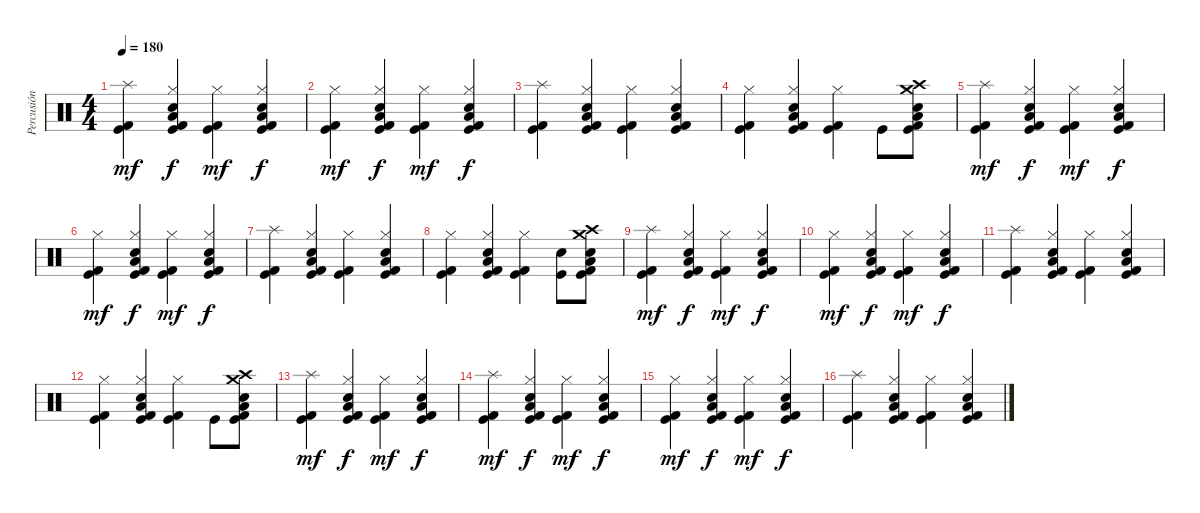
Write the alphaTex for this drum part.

\track ("Percusión" "Percusión") {instrument percussion}
\staff {score}
\articulation defaults
\ts (4 4)
\tempo 180
\clef neutral
\ks c
("Splash (hit)" "Kick (hit) 2" "Kick (hit)").4{dy mf} ("Hi-Hat (closed)" "Electric Snare (hit)" "Low Tom (hit)" "Kick (hit) 2" "Kick (hit)").4{dy f} ("Hi-Hat (closed)" "Kick (hit) 2" "Kick (hit)").4{dy mf} ("Hi-Hat (closed)" "Electric Snare (hit)" "Low Tom (hit)" "Kick (hit) 2" "Kick (hit)").4{dy f} |
("Hi-Hat (closed)" "Kick (hit) 2" "Kick (hit)").4{dy mf} ("Hi-Hat (closed)" "Electric Snare (hit)" "Low Tom (hit)" "Kick (hit) 2" "Kick (hit)").4{dy f} ("Hi-Hat (closed)" "Kick (hit) 2" "Kick (hit)").4{dy mf} ("Hi-Hat (closed)" "Electric Snare (hit)" "Low Tom (hit)" "Kick (hit) 2" "Kick (hit)").4{dy f} |
("Splash (hit)" "Kick (hit) 2" "Kick (hit)").4 ("Hi-Hat (closed)" "Electric Snare (hit)" "Low Tom (hit)" "Kick (hit) 2" "Kick (hit)").4 ("Hi-Hat (closed)" "Kick (hit) 2" "Kick (hit)").4 ("Hi-Hat (closed)" "Electric Snare (hit)" "Low Tom (hit)" "Kick (hit) 2" "Kick (hit)").4 |
("Hi-Hat (closed)" "Kick (hit) 2" "Kick (hit)").4 ("Hi-Hat (closed)" "Electric Snare (hit)" "Low Tom (hit)" "Kick (hit) 2" "Kick (hit)").4 ("Hi-Hat (closed)" "Kick (hit) 2" "Kick (hit)").4 "Kick (hit)".8 ("Crash high (hit)" "Electric Snare (hit)" "Low Tom (hit)" "Crash medium (hit)" "Kick (hit) 2" "Kick (hit)").8 |
("Splash (hit)" "Kick (hit) 2" "Kick (hit)").4{dy mf} ("Hi-Hat (closed)" "Electric Snare (hit)" "Low Tom (hit)" "Kick (hit) 2" "Kick (hit)").4{dy f} ("Hi-Hat (closed)" "Kick (hit) 2" "Kick (hit)").4{dy mf} ("Hi-Hat (closed)" "Electric Snare (hit)" "Low Tom (hit)" "Kick (hit) 2" "Kick (hit)").4{dy f} |
("Hi-Hat (closed)" "Kick (hit) 2" "Kick (hit)").4{dy mf} ("Hi-Hat (closed)" "Electric Snare (hit)" "Low Tom (hit)" "Kick (hit) 2" "Kick (hit)").4{dy f} ("Hi-Hat (closed)" "Kick (hit) 2" "Kick (hit)").4{dy mf} ("Hi-Hat (closed)" "Electric Snare (hit)" "Low Tom (hit)" "Kick (hit) 2" "Kick (hit)").4{dy f} |
("Splash (hit)" "Kick (hit) 2" "Kick (hit)").4 ("Hi-Hat (closed)" "Electric Snare (hit)" "Low Tom (hit)" "Kick (hit) 2" "Kick (hit)").4 ("Hi-Hat (closed)" "Kick (hit) 2" "Kick (hit)").4 ("Hi-Hat (closed)" "Electric Snare (hit)" "Low Tom (hit)" "Kick (hit) 2" "Kick (hit)").4 |
("Hi-Hat (closed)" "Kick (hit) 2" "Kick (hit)").4 ("Hi-Hat (closed)" "Electric Snare (hit)" "Low Tom (hit)" "Kick (hit) 2" "Kick (hit)").4 ("Hi-Hat (closed)" "Kick (hit) 2" "Kick (hit)").4 ("Electric Snare (hit)" "Kick (hit)").8 ("Crash high (hit)" "Electric Snare (hit)" "Low Tom (hit)" "Crash medium (hit)" "Kick (hit) 2" "Kick (hit)").8 |
("Splash (hit)" "Kick (hit) 2" "Kick (hit)").4{dy mf} ("Hi-Hat (closed)" "Electric Snare (hit)" "Low Tom (hit)" "Kick (hit) 2" "Kick (hit)").4{dy f} ("Hi-Hat (closed)" "Kick (hit) 2" "Kick (hit)").4{dy mf} ("Hi-Hat (closed)" "Electric Snare (hit)" "Low Tom (hit)" "Kick (hit) 2" "Kick (hit)").4{dy f} |
("Hi-Hat (closed)" "Kick (hit) 2" "Kick (hit)").4{dy mf} ("Hi-Hat (closed)" "Electric Snare (hit)" "Low Tom (hit)" "Kick (hit) 2" "Kick (hit)").4{dy f} ("Hi-Hat (closed)" "Kick (hit) 2" "Kick (hit)").4{dy mf} ("Hi-Hat (closed)" "Electric Snare (hit)" "Low Tom (hit)" "Kick (hit) 2" "Kick (hit)").4{dy f} |
("Splash (hit)" "Kick (hit) 2" "Kick (hit)").4 ("Hi-Hat (closed)" "Electric Snare (hit)" "Low Tom (hit)" "Kick (hit) 2" "Kick (hit)").4 ("Hi-Hat (closed)" "Kick (hit) 2" "Kick (hit)").4 ("Hi-Hat (closed)" "Electric Snare (hit)" "Low Tom (hit)" "Kick (hit) 2" "Kick (hit)").4 |
("Hi-Hat (closed)" "Kick (hit) 2" "Kick (hit)").4 ("Hi-Hat (closed)" "Electric Snare (hit)" "Low Tom (hit)" "Kick (hit) 2" "Kick (hit)").4 ("Hi-Hat (closed)" "Kick (hit) 2" "Kick (hit)").4 "Kick (hit)".8 ("Crash high (hit)" "Electric Snare (hit)" "Low Tom (hit)" "Crash medium (hit)" "Kick (hit) 2" "Kick (hit)").8 |
("Splash (hit)" "Kick (hit) 2" "Kick (hit)").4{dy mf} ("Hi-Hat (closed)" "Electric Snare (hit)" "Low Tom (hit)" "Kick (hit) 2" "Kick (hit)").4{dy f} ("Hi-Hat (closed)" "Kick (hit) 2" "Kick (hit)").4{dy mf} ("Hi-Hat (closed)" "Electric Snare (hit)" "Low Tom (hit)" "Kick (hit) 2" "Kick (hit)").4{dy f} |
("Splash (hit)" "Kick (hit) 2" "Kick (hit)").4{dy mf} ("Hi-Hat (closed)" "Electric Snare (hit)" "Low Tom (hit)" "Kick (hit) 2" "Kick (hit)").4{dy f} ("Hi-Hat (closed)" "Kick (hit) 2" "Kick (hit)").4{dy mf} ("Hi-Hat (closed)" "Electric Snare (hit)" "Low Tom (hit)" "Kick (hit) 2" "Kick (hit)").4{dy f} |
("Hi-Hat (closed)" "Kick (hit) 2" "Kick (hit)").4{dy mf} ("Hi-Hat (closed)" "Electric Snare (hit)" "Low Tom (hit)" "Kick (hit) 2" "Kick (hit)").4{dy f} ("Hi-Hat (closed)" "Kick (hit) 2" "Kick (hit)").4{dy mf} ("Hi-Hat (closed)" "Electric Snare (hit)" "Low Tom (hit)" "Kick (hit) 2" "Kick (hit)").4{dy f} |
("Splash (hit)" "Kick (hit) 2" "Kick (hit)").4 ("Hi-Hat (closed)" "Electric Snare (hit)" "Low Tom (hit)" "Kick (hit) 2" "Kick (hit)").4 ("Hi-Hat (closed)" "Kick (hit) 2" "Kick (hit)").4 ("Hi-Hat (closed)" "Electric Snare (hit)" "Low Tom (hit)" "Kick (hit) 2" "Kick (hit)").4
